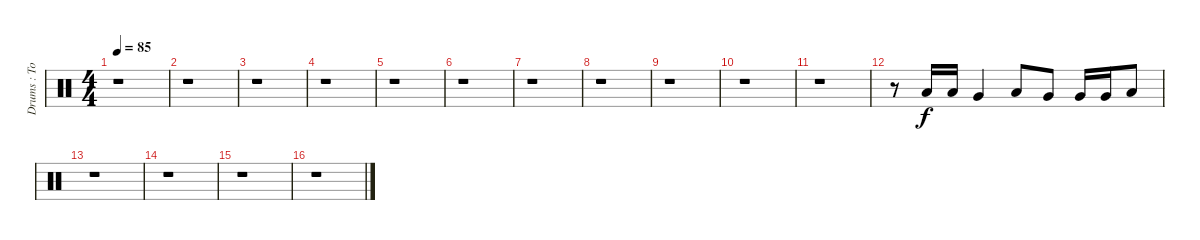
\track ("Drums : Toms" "Drums : To") {instrument percussion}
\staff {score}
\articulation defaults
\ts (4 4)
\tempo 85
\clef neutral
\ks c
r.1{dy f} |
r.1 |
r.1 |
r.1 |
r.1 |
r.1 |
r.1 |
r.1 |
r.1 |
r.1 |
r.1 |
r.8 "Low Tom (hit)".16 "Low Tom (hit)".16 "Very Low Tom (hit)".4 "Low Tom (hit)".8 "Very Low Tom (hit)".8 "Very Low Tom (hit)".16 "Very Low Tom (hit)".16 "Low Floor Tom (hit)".8 |
r.1 |
r.1 |
r.1 |
r.1
